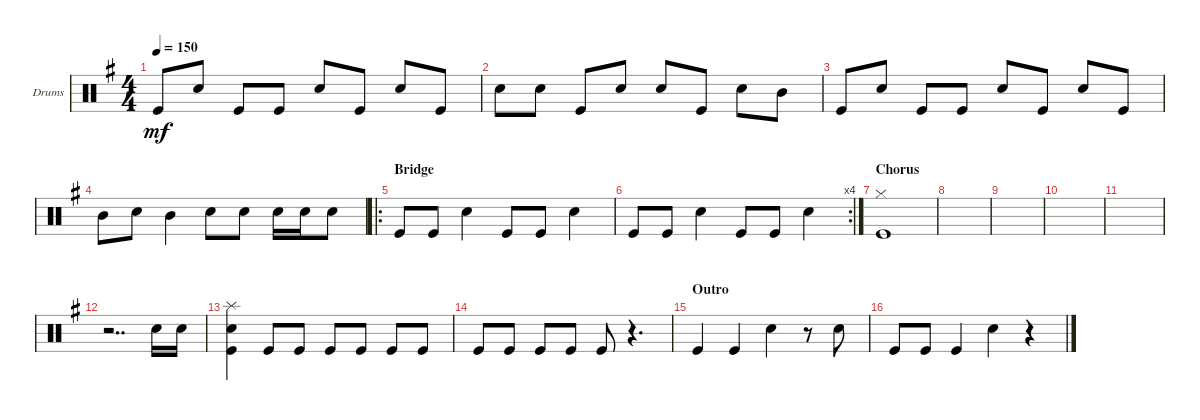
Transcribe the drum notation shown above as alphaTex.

\defaultSystemsLayout 4
\bracketExtendMode groupsimilarinstruments
\firstSystemTrackNameOrientation horizontal
\otherSystemsTrackNameOrientation horizontal
\track ("Drumkit" "Drums") {instrument percussion}
\staff {score}
\articulation defaults
\ts (4 4)
\tempo 150
\clef neutral
\ks g "Kick (hit)".8{dy mf} "Snare (hit) 2".8 "Kick (hit)".8 "Kick (hit)".8 "Snare (hit) 2".8 "Kick (hit)".8 "Snare (hit) 2".8 "Kick (hit)".8
|
"Snare (hit) 2".8 "Snare (hit) 2".8 "Kick (hit)".8 "Snare (hit) 2".8 "Snare (hit) 2".8 "Kick (hit)".8 "Snare (hit) 2".8 "Mid Tom (hit)".8 |
"Kick (hit)".8 "Snare (hit) 2".8 "Kick (hit)".8 "Kick (hit)".8 "Snare (hit) 2".8 "Kick (hit)".8 "Snare (hit) 2".8 "Kick (hit)".8 |
"Mid Tom (hit)".8 "Snare (hit) 2".8 "Mid Tom (hit)".4 "Snare (hit) 2".8 "Snare (hit) 2".8 "Snare (hit) 2".16 "Snare (hit) 2".16 "Snare (hit) 2".8 |
\ro
\section ("" "Bridge")
"Kick (hit)".8 "Kick (hit)".8 "Snare (hit) 2".4 "Kick (hit)".8 "Kick (hit)".8 "Snare (hit) 2".4 |
\rc 4 "Kick (hit)".8 "Kick (hit)".8 "Snare (hit) 2".4 "Kick (hit)".8 "Kick (hit)".8 "Snare (hit) 2".4
|
\section ("" "Chorus")
("Kick (hit)" "Hi-Hat (closed)").1 |
|
|
|
|
r.2{dd} "Snare (hit) 2".16 "Snare (hit) 2".16 |
("Kick (hit)" "Snare (hit) 2" "Splash (hit)").4 "Kick (hit)".8 "Kick (hit)".8 "Kick (hit)".8 "Kick (hit)".8 "Kick (hit)".8 "Kick (hit)".8 |
"Kick (hit)".8 "Kick (hit)".8 "Kick (hit)".8 "Kick (hit)".8 "Kick (hit)".8 r.4{d} |
\section ("" "Outro")
"Kick (hit)".4 "Kick (hit)".4 "Snare (hit) 2".4 r.8 "Snare (hit) 2".8 |
"Kick (hit)".8 "Kick (hit)".8 "Kick (hit)".4 "Snare (hit) 2".4 r.4
